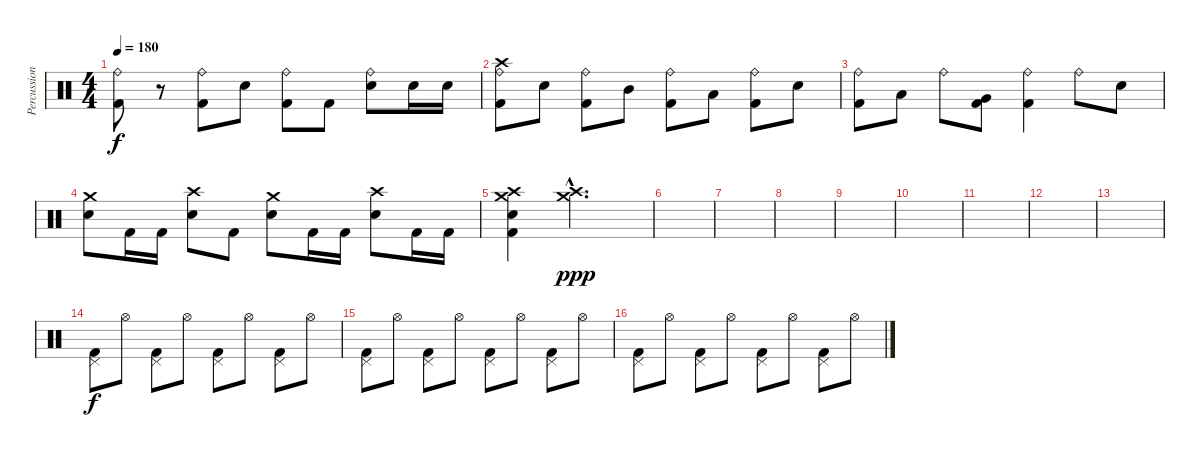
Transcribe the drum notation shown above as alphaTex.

\track ("Percussion" "Percussion") {instrument percussion}
\staff {score}
\articulation defaults
\ts (4 4)
\tempo 180
\clef neutral
\ks c
("Ride (bell)" "Kick (hit) 2").8{dy f} r.8 ("Ride (bell)" "Kick (hit) 2").8 "Snare (hit) 2".8 ("Ride (bell)" "Kick (hit) 2").8 "Kick (hit) 2".8 ("Ride (bell)" "Snare (hit) 2").8 "Snare (hit) 2".16 "Snare (hit) 2".16 |
("Crash high (hit)" "Ride (bell)" "Kick (hit) 2").8 "Snare (hit) 2".8 ("Ride (bell)" "Kick (hit) 2").8 "Mid Tom (hit)".8 ("Ride (bell)" "Kick (hit) 2").8 "Low Tom (hit)".8 ("Ride (bell)" "Kick (hit) 2").8 "Snare (hit) 2".8 |
("Ride (bell)" "Kick (hit) 2").8 "Low Tom (hit)".8 "Ride (bell)".8 ("Very Low Tom (hit)" "Kick (hit) 2").8 ("Ride (bell)" "Kick (hit) 2").4 "Ride (bell)".8 "Snare (hit) 2".8 |
("Crash medium (hit)" "Snare (hit) 2").8 "Kick (hit) 2".16 "Kick (hit) 2".16 ("Crash high (hit)" "Snare (hit) 2").8 "Kick (hit) 2".8 ("Crash medium (hit)" "Snare (hit) 2").8 "Kick (hit) 2".16 "Kick (hit) 2".16 ("Crash high (hit)" "Snare (hit) 2").8 "Kick (hit) 2".16 "Kick (hit) 2".16 |
("Crash high (hit)" "Crash medium (hit)" "Snare (hit) 2" "Kick (hit) 2").4 ("Crash high (hit)"{hac} "Crash medium (hit)"{hac}).2{d dy ppp} |
|
|
|
|
|
|
|
|
("Pedal Hi-Hat (hit)" "Kick (hit) 2").8{dy f} "Hi-Hat (open)".8 ("Pedal Hi-Hat (hit)" "Kick (hit) 2").8 "Hi-Hat (open)".8 ("Pedal Hi-Hat (hit)" "Kick (hit) 2").8 "Hi-Hat (open)".8 ("Pedal Hi-Hat (hit)" "Kick (hit) 2").8 "Hi-Hat (open)".8 |
("Pedal Hi-Hat (hit)" "Kick (hit) 2").8 "Hi-Hat (open)".8 ("Pedal Hi-Hat (hit)" "Kick (hit) 2").8 "Hi-Hat (open)".8 ("Pedal Hi-Hat (hit)" "Kick (hit) 2").8 "Hi-Hat (open)".8 ("Pedal Hi-Hat (hit)" "Kick (hit) 2").8 "Hi-Hat (open)".8 |
("Pedal Hi-Hat (hit)" "Kick (hit) 2").8 "Hi-Hat (open)".8 ("Pedal Hi-Hat (hit)" "Kick (hit) 2").8 "Hi-Hat (open)".8 ("Pedal Hi-Hat (hit)" "Kick (hit) 2").8 "Hi-Hat (open)".8 ("Pedal Hi-Hat (hit)" "Kick (hit) 2").8 "Hi-Hat (open)".8
